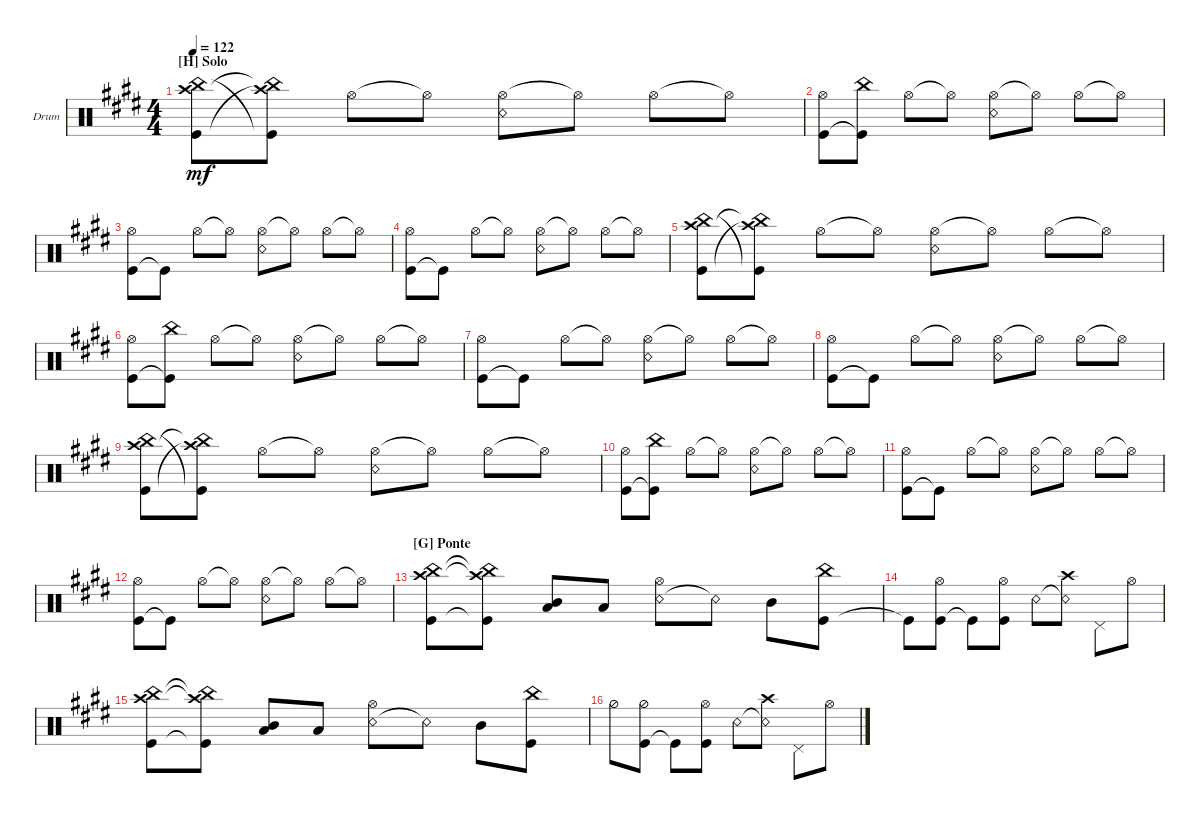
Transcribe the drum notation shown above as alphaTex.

\defaultSystemsLayout 4
\bracketExtendMode groupsimilarinstruments
\firstSystemTrackNameOrientation horizontal
\otherSystemsTrackNameOrientation horizontal
\track ("Bateria" "Drum") {multiBarRest instrument percussion}
\staff {score}
\articulation defaults
\ts (4 4)
\section ("H" "Solo")
\tempo 122
\clef neutral
\ks e
("China (hit)" "Crash high (hit)" "Kick (hit)").8{dy mf} ("Kick (hit)"{t} "China (hit)"{t} "Crash high (hit)"{t}).8 "Hi-Hat (open)".8 "Hi-Hat (open)"{t}.8 ("Hi-Hat (open)" "Snare (rim shot)").8 "Hi-Hat (open)"{t}.8 "Hi-Hat (open)".8 "Hi-Hat (open)"{t}.8 |
("Kick (hit)" "Hi-Hat (open)").8 ("Kick (hit)"{t} "China (hit)").8 "Hi-Hat (open)".8 "Hi-Hat (open)"{t}.8 ("Hi-Hat (open)" "Snare (rim shot)").8 "Hi-Hat (open)"{t}.8 "Hi-Hat (open)".8 "Hi-Hat (open)"{t}.8 |
("Kick (hit)" "Hi-Hat (open)").8 "Kick (hit)"{t}.8 "Hi-Hat (open)".8 "Hi-Hat (open)"{t}.8 ("Hi-Hat (open)" "Snare (rim shot)").8 "Hi-Hat (open)"{t}.8 "Hi-Hat (open)".8 "Hi-Hat (open)"{t}.8 |
("Kick (hit)" "Hi-Hat (open)").8 "Kick (hit)"{t}.8 "Hi-Hat (open)".8 "Hi-Hat (open)"{t}.8 ("Hi-Hat (open)" "Snare (rim shot)").8 "Hi-Hat (open)"{t}.8 "Hi-Hat (open)".8 "Hi-Hat (open)"{t}.8 |
("China (hit)" "Crash high (hit)" "Kick (hit)").8 ("Kick (hit)"{t} "China (hit)"{t} "Crash high (hit)"{t}).8 "Hi-Hat (open)".8 "Hi-Hat (open)"{t}.8 ("Hi-Hat (open)" "Snare (rim shot)").8 "Hi-Hat (open)"{t}.8 "Hi-Hat (open)".8 "Hi-Hat (open)"{t}.8 |
("Kick (hit)" "Hi-Hat (open)").8 ("Kick (hit)"{t} "China (hit)").8 "Hi-Hat (open)".8 "Hi-Hat (open)"{t}.8 ("Hi-Hat (open)" "Snare (rim shot)").8 "Hi-Hat (open)"{t}.8 "Hi-Hat (open)".8 "Hi-Hat (open)"{t}.8 |
("Kick (hit)" "Hi-Hat (open)").8 "Kick (hit)"{t}.8 "Hi-Hat (open)".8 "Hi-Hat (open)"{t}.8 ("Hi-Hat (open)" "Snare (rim shot)").8 "Hi-Hat (open)"{t}.8 "Hi-Hat (open)".8 "Hi-Hat (open)"{t}.8 |
("Kick (hit)" "Hi-Hat (open)").8 "Kick (hit)"{t}.8 "Hi-Hat (open)".8 "Hi-Hat (open)"{t}.8 ("Hi-Hat (open)" "Snare (rim shot)").8 "Hi-Hat (open)"{t}.8 "Hi-Hat (open)".8 "Hi-Hat (open)"{t}.8 |
("China (hit)" "Crash high (hit)" "Kick (hit)").8 ("Kick (hit)"{t} "China (hit)"{t} "Crash high (hit)"{t}).8 "Hi-Hat (open)".8 "Hi-Hat (open)"{t}.8 ("Hi-Hat (open)" "Snare (rim shot)").8 "Hi-Hat (open)"{t}.8 "Hi-Hat (open)".8 "Hi-Hat (open)"{t}.8 |
("Kick (hit)" "Hi-Hat (open)").8 ("Kick (hit)"{t} "China (hit)").8 "Hi-Hat (open)".8 "Hi-Hat (open)"{t}.8 ("Hi-Hat (open)" "Snare (rim shot)").8 "Hi-Hat (open)"{t}.8 "Hi-Hat (open)".8 "Hi-Hat (open)"{t}.8 |
("Kick (hit)" "Hi-Hat (open)").8 "Kick (hit)"{t}.8 "Hi-Hat (open)".8 "Hi-Hat (open)"{t}.8 ("Hi-Hat (open)" "Snare (rim shot)").8 "Hi-Hat (open)"{t}.8 "Hi-Hat (open)".8 "Hi-Hat (open)"{t}.8 |
("Kick (hit)" "Hi-Hat (open)").8 "Kick (hit)"{t}.8 "Hi-Hat (open)".8 "Hi-Hat (open)"{t}.8 ("Hi-Hat (open)" "Snare (rim shot)").8 "Hi-Hat (open)"{t}.8 "Hi-Hat (open)".8 "Hi-Hat (open)"{t}.8 |
\section ("G" "Ponte")
("Kick (hit)" "China (hit)" "Crash high (hit)").8 ("Kick (hit)"{t} "China (hit)"{t} "Crash high (hit)"{t}).8 ("Low Tom (hit)" "Mid Tom (hit)").8 "Low Tom (hit)".8 ("Snare (rim shot)" "Hi-Hat (open)").8 "Snare (rim shot)"{t}.8 "Mid Tom (hit)".8 ("Kick (hit)" "China (hit)").8 |
"Kick (hit)"{t}.8 ("Kick (hit)" "Hi-Hat (open)").8 "Kick (hit)"{t}.8 ("Kick (hit)" "Hi-Hat (open)").8 "Snare (rim shot)".8 ("Snare (rim shot)"{t} "Crash high (hit)").8 "Pedal Hi-Hat (hit)".8 "Hi-Hat (open)".8 |
("Kick (hit)" "China (hit)" "Crash high (hit)").8 ("Kick (hit)"{t} "China (hit)"{t} "Crash high (hit)"{t}).8 ("Low Tom (hit)" "Mid Tom (hit)").8 "Low Tom (hit)".8 ("Snare (rim shot)" "Hi-Hat (open)").8 "Snare (rim shot)"{t}.8 "Mid Tom (hit)".8 ("Kick (hit)" "China (hit)").8 |
"Hi-Hat (half)".8 ("Kick (hit)" "Hi-Hat (half)").8 "Kick (hit)"{t}.8 ("Kick (hit)" "Hi-Hat (open)").8 "Snare (rim shot)".8 ("Snare (rim shot)"{t} "Crash high (hit)").8 "Pedal Hi-Hat (hit)".8 "Hi-Hat (open)".8
